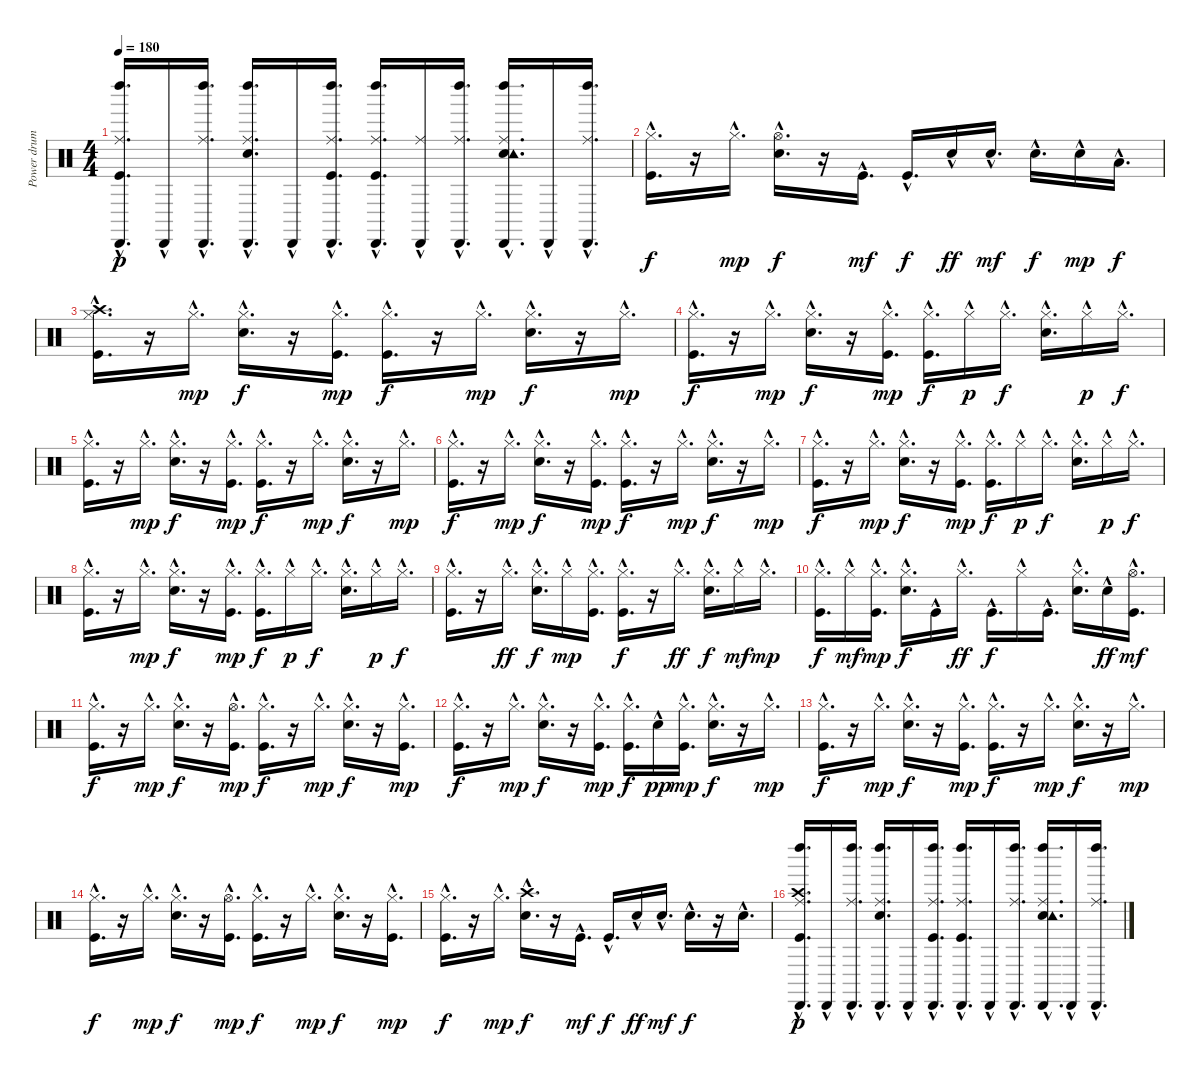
\track ("Power drum" "Power drum") {instrument percussion}
\staff {score}
\articulation defaults
\ts (4 4)
\tempo 180
\clef neutral
\ks c
("Kick (hit)"{hac} "Ride (middle)"{hac} "Left Maraca (hit)"{hac} "Cabasa (hit)"{hac}).16{d dy p} "Cabasa (hit)"{hac}.16 ("Ride (middle)"{hac} "Left Maraca (hit)"{hac} "Cabasa (hit)"{hac}).16{d} ("Snare (hit) 2"{hac} "Ride (middle)"{hac} "Left Maraca (hit)"{hac} "Cabasa (hit)"{hac}).16{d} "Cabasa (hit)"{hac}.16 ("Kick (hit)"{hac} "Ride (middle)"{hac} "Left Maraca (hit)"{hac} "Cabasa (hit)"{hac}).16{d} ("Kick (hit)"{hac} "Ride (middle)"{hac} "Left Maraca (hit)"{hac} "Cabasa (hit)"{hac}).16{d} ("Ride (middle)"{hac} "Cabasa (hit)"{hac}).16 ("Ride (middle)"{hac} "Left Maraca (hit)"{hac} "Cabasa (hit)"{hac}).16{d} ("Snare (hit) 2"{hac} "Ride (middle)"{hac} "Tambourine (hit)"{hac} "Left Maraca (hit)"{hac} "Cabasa (hit)"{hac}).16{d} "Cabasa (hit)"{hac}.16 ("Ride (middle)"{hac} "Left Maraca (hit)"{hac} "Cabasa (hit)"{hac}).16{d} |
("Kick (hit)"{hac} "Hi-Hat (closed)"{hac}).16{d dy f} r.16 "Hi-Hat (closed)"{hac}.16{d dy mp} ("Snare (hit) 2"{hac} "Hi-Hat (open)"{hac}).16{d dy f} r.16 "Kick (hit)"{hac}.16{d dy mf} "Kick (hit)"{hac}.16{d dy f} "Snare (hit) 2"{hac}.16{dy ff} "Snare (hit) 2"{hac}.16{d dy mf} "Snare (hit) 2"{hac}.16{d dy f} "Snare (hit) 2"{hac}.16{dy mp} "Low Floor Tom (hit)"{hac}.16{d dy f} |
("Kick (hit)"{hac} "Hi-Hat (closed)"{hac} "Crash high (hit)"{hac}).16{d} r.16 "Hi-Hat (closed)"{hac}.16{d dy mp} ("Snare (hit) 2"{hac} "Hi-Hat (closed)"{hac}).16{d dy f} r.16 ("Kick (hit)"{hac} "Hi-Hat (closed)"{hac}).16{d dy mp} ("Kick (hit)"{hac} "Hi-Hat (closed)"{hac}).16{d dy f} r.16 "Hi-Hat (closed)"{hac}.16{d dy mp} ("Snare (hit) 2"{hac} "Hi-Hat (closed)"{hac}).16{d dy f} r.16 "Hi-Hat (closed)"{hac}.16{d dy mp} |
("Kick (hit)"{hac} "Hi-Hat (closed)"{hac}).16{d dy f} r.16 "Hi-Hat (closed)"{hac}.16{d dy mp} ("Snare (hit) 2"{hac} "Hi-Hat (closed)"{hac}).16{d dy f} r.16 ("Kick (hit)"{hac} "Hi-Hat (closed)"{hac}).16{d dy mp} ("Kick (hit)"{hac} "Hi-Hat (closed)"{hac}).16{d dy f} "Hi-Hat (closed)"{hac}.16{dy p} "Hi-Hat (closed)"{hac}.16{d dy f} ("Snare (hit) 2"{hac} "Hi-Hat (closed)"{hac}).16{d} "Hi-Hat (closed)"{hac}.16{dy p} "Hi-Hat (closed)"{hac}.16{d dy f} |
("Kick (hit)"{hac} "Hi-Hat (closed)"{hac}).16{d} r.16 "Hi-Hat (closed)"{hac}.16{d dy mp} ("Snare (hit) 2"{hac} "Hi-Hat (closed)"{hac}).16{d dy f} r.16 ("Kick (hit)"{hac} "Hi-Hat (closed)"{hac}).16{d dy mp} ("Kick (hit)"{hac} "Hi-Hat (closed)"{hac}).16{d dy f} r.16 "Hi-Hat (closed)"{hac}.16{d dy mp} ("Snare (hit) 2"{hac} "Hi-Hat (closed)"{hac}).16{d dy f} r.16 "Hi-Hat (closed)"{hac}.16{d dy mp} |
("Kick (hit)"{hac} "Hi-Hat (closed)"{hac}).16{d dy f} r.16 "Hi-Hat (closed)"{hac}.16{d dy mp} ("Snare (hit) 2"{hac} "Hi-Hat (closed)"{hac}).16{d dy f} r.16 ("Kick (hit)"{hac} "Hi-Hat (closed)"{hac}).16{d dy mp} ("Kick (hit)"{hac} "Hi-Hat (closed)"{hac}).16{d dy f} r.16 "Hi-Hat (closed)"{hac}.16{d dy mp} ("Snare (hit) 2"{hac} "Hi-Hat (closed)"{hac}).16{d dy f} r.16 "Hi-Hat (closed)"{hac}.16{d dy mp} |
("Kick (hit)"{hac} "Hi-Hat (closed)"{hac}).16{d dy f} r.16 "Hi-Hat (closed)"{hac}.16{d dy mp} ("Snare (hit) 2"{hac} "Hi-Hat (closed)"{hac}).16{d dy f} r.16 ("Kick (hit)"{hac} "Hi-Hat (closed)"{hac}).16{d dy mp} ("Kick (hit)"{hac} "Hi-Hat (closed)"{hac}).16{d dy f} "Hi-Hat (closed)"{hac}.16{dy p} "Hi-Hat (closed)"{hac}.16{d dy f} ("Snare (hit) 2"{hac} "Hi-Hat (closed)"{hac}).16{d} "Hi-Hat (closed)"{hac}.16{dy p} "Hi-Hat (closed)"{hac}.16{d dy f} |
("Kick (hit)"{hac} "Hi-Hat (closed)"{hac}).16{d} r.16 "Hi-Hat (closed)"{hac}.16{d dy mp} ("Snare (hit) 2"{hac} "Hi-Hat (closed)"{hac}).16{d dy f} r.16 ("Kick (hit)"{hac} "Hi-Hat (closed)"{hac}).16{d dy mp} ("Kick (hit)"{hac} "Hi-Hat (closed)"{hac}).16{d dy f} "Hi-Hat (closed)"{hac}.16{dy p} "Hi-Hat (closed)"{hac}.16{d dy f} ("Snare (hit) 2"{hac} "Hi-Hat (closed)"{hac}).16{d} "Hi-Hat (closed)"{hac}.16{dy p} "Hi-Hat (closed)"{hac}.16{d dy f} |
("Kick (hit)"{hac} "Hi-Hat (closed)"{hac}).16{d} r.16 "Hi-Hat (closed)"{hac}.16{d dy ff} ("Snare (hit) 2"{hac} "Hi-Hat (closed)"{hac}).16{d dy f} "Hi-Hat (closed)"{hac}.16{dy mp} ("Kick (hit)"{hac} "Hi-Hat (closed)"{hac}).16{d} ("Kick (hit)"{hac} "Hi-Hat (closed)"{hac}).16{d dy f} r.16 "Hi-Hat (closed)"{hac}.16{d dy ff} ("Snare (hit) 2"{hac} "Hi-Hat (closed)"{hac}).16{d dy f} "Hi-Hat (closed)"{hac}.16{dy mf} "Hi-Hat (closed)"{hac}.16{d dy mp} |
("Kick (hit)"{hac} "Hi-Hat (closed)"{hac}).16{d dy f} "Hi-Hat (closed)"{hac}.16{dy mf} ("Kick (hit)"{hac} "Hi-Hat (closed)"{hac}).16{d dy mp} ("Snare (hit) 2"{hac} "Hi-Hat (closed)"{hac}).16{d dy f} "Kick (hit)"{hac}.16 "Hi-Hat (closed)"{hac}.16{d dy ff} "Kick (hit)"{hac}.16{d dy f} "Hi-Hat (closed)"{hac}.16 "Kick (hit)"{hac}.16{d} ("Snare (hit) 2"{hac} "Hi-Hat (closed)"{hac}).16{d} "Snare (hit) 2"{hac}.16{dy ff} ("Kick (hit)"{hac} "Hi-Hat (open)"{hac}).16{d dy mf} |
("Kick (hit)"{hac} "Hi-Hat (closed)"{hac}).16{d dy f} r.16 "Hi-Hat (closed)"{hac}.16{d dy mp} ("Snare (hit) 2"{hac} "Hi-Hat (closed)"{hac}).16{d dy f} r.16 ("Kick (hit)"{hac} "Hi-Hat (open)"{hac}).16{d dy mp} ("Kick (hit)"{hac} "Hi-Hat (closed)"{hac}).16{d dy f} r.16 "Hi-Hat (closed)"{hac}.16{d dy mp} ("Snare (hit) 2"{hac} "Hi-Hat (closed)"{hac}).16{d dy f} r.16 ("Kick (hit)"{hac} "Hi-Hat (closed)"{hac}).16{d dy mp} |
("Kick (hit)"{hac} "Hi-Hat (closed)"{hac}).16{d dy f} r.16 "Hi-Hat (closed)"{hac}.16{d dy mp} ("Snare (hit) 2"{hac} "Hi-Hat (closed)"{hac}).16{d dy f} r.16 ("Kick (hit)"{hac} "Hi-Hat (closed)"{hac}).16{d dy mp} ("Kick (hit)"{hac} "Hi-Hat (closed)"{hac}).16{d dy f} "Snare (hit) 2"{hac}.16{dy pp} ("Kick (hit)"{hac} "Hi-Hat (closed)"{hac}).16{d dy mp} ("Snare (hit) 2"{hac} "Hi-Hat (closed)"{hac}).16{d dy f} r.16 "Hi-Hat (closed)"{hac}.16{d dy mp} |
("Kick (hit)"{hac} "Hi-Hat (closed)"{hac}).16{d dy f} r.16 "Hi-Hat (closed)"{hac}.16{d dy mp} ("Snare (hit) 2"{hac} "Hi-Hat (closed)"{hac}).16{d dy f} r.16 ("Kick (hit)"{hac} "Hi-Hat (closed)"{hac}).16{d dy mp} ("Kick (hit)"{hac} "Hi-Hat (closed)"{hac}).16{d dy f} r.16 "Hi-Hat (closed)"{hac}.16{d dy mp} ("Snare (hit) 2"{hac} "Hi-Hat (closed)"{hac}).16{d dy f} r.16 "Hi-Hat (closed)"{hac}.16{d dy mp} |
("Kick (hit)"{hac} "Hi-Hat (closed)"{hac}).16{d dy f} r.16 "Hi-Hat (closed)"{hac}.16{d dy mp} ("Snare (hit) 2"{hac} "Hi-Hat (closed)"{hac}).16{d dy f} r.16 ("Kick (hit)"{hac} "Hi-Hat (open)"{hac}).16{d dy mp} ("Kick (hit)"{hac} "Hi-Hat (closed)"{hac}).16{d dy f} r.16 "Hi-Hat (closed)"{hac}.16{d dy mp} ("Snare (hit) 2"{hac} "Hi-Hat (closed)"{hac}).16{d dy f} r.16 ("Kick (hit)"{hac} "Hi-Hat (closed)"{hac}).16{d dy mp} |
("Kick (hit)"{hac} "Hi-Hat (closed)"{hac}).16{d dy f} r.16 "Hi-Hat (closed)"{hac}.16{d dy mp} ("Snare (hit) 2"{hac} "Crash high (hit)"{hac}).16{d dy f} r.16 "Kick (hit)"{hac}.16{d dy mf} "Kick (hit)"{hac}.16{d dy f} "Snare (hit) 2"{hac}.16{dy ff} "Snare (hit) 2"{hac}.16{d dy mf} "Snare (hit) 2"{hac}.16{d dy f} r.16 "Snare (hit) 2"{hac}.16{d} |
("Kick (hit)"{hac} "Ride (middle)"{hac} "Crash high (hit)"{hac} "Left Maraca (hit)"{hac} "Cabasa (hit)"{hac}).16{d dy p} "Cabasa (hit)"{hac}.16 ("Ride (middle)"{hac} "Left Maraca (hit)"{hac} "Cabasa (hit)"{hac}).16{d} ("Snare (hit) 2"{hac} "Ride (middle)"{hac} "Left Maraca (hit)"{hac} "Cabasa (hit)"{hac}).16{d} "Cabasa (hit)"{hac}.16 ("Kick (hit)"{hac} "Ride (middle)"{hac} "Left Maraca (hit)"{hac} "Cabasa (hit)"{hac}).16{d} ("Kick (hit)"{hac} "Ride (middle)"{hac} "Left Maraca (hit)"{hac} "Cabasa (hit)"{hac}).16{d} "Cabasa (hit)"{hac}.16 ("Ride (middle)"{hac} "Left Maraca (hit)"{hac} "Cabasa (hit)"{hac}).16{d} ("Snare (hit) 2"{hac} "Ride (middle)"{hac} "Tambourine (hit)"{hac} "Left Maraca (hit)"{hac} "Cabasa (hit)"{hac}).16{d} "Cabasa (hit)"{hac}.16 ("Ride (middle)"{hac} "Left Maraca (hit)"{hac} "Cabasa (hit)"{hac}).16{d}
